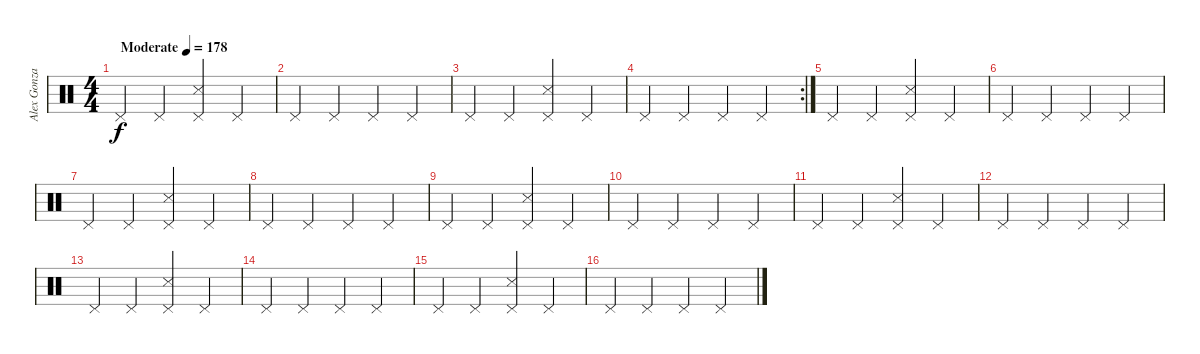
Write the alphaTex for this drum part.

\track ("Alex Gonzales" "Alex Gonza") {instrument percussion}
\staff {score}
\articulation defaults
\ts (4 4)
\tempo (178 "Moderate")
\clef neutral
\ks c "Pedal Hi-Hat (hit)".4{dy f} "Pedal Hi-Hat (hit)".4
("Pedal Hi-Hat (hit)" "Snare (side stick) 3").4 "Pedal Hi-Hat (hit)".4 |
"Pedal Hi-Hat (hit)".4 "Pedal Hi-Hat (hit)".4 "Pedal Hi-Hat (hit)".4 "Pedal Hi-Hat (hit)".4 |
"Pedal Hi-Hat (hit)".4 "Pedal Hi-Hat (hit)".4 ("Pedal Hi-Hat (hit)" "Snare (side stick) 3").4 "Pedal Hi-Hat (hit)".4 |
\rc 2 "Pedal Hi-Hat (hit)".4 "Pedal Hi-Hat (hit)".4 "Pedal Hi-Hat (hit)".4 "Pedal Hi-Hat (hit)".4
|
"Pedal Hi-Hat (hit)".4 "Pedal Hi-Hat (hit)".4 ("Pedal Hi-Hat (hit)" "Snare (side stick) 3").4 "Pedal Hi-Hat (hit)".4 |
"Pedal Hi-Hat (hit)".4 "Pedal Hi-Hat (hit)".4 "Pedal Hi-Hat (hit)".4 "Pedal Hi-Hat (hit)".4 |
"Pedal Hi-Hat (hit)".4 "Pedal Hi-Hat (hit)".4 ("Pedal Hi-Hat (hit)" "Snare (side stick) 3").4 "Pedal Hi-Hat (hit)".4 |
"Pedal Hi-Hat (hit)".4 "Pedal Hi-Hat (hit)".4 "Pedal Hi-Hat (hit)".4 "Pedal Hi-Hat (hit)".4 |
"Pedal Hi-Hat (hit)".4 "Pedal Hi-Hat (hit)".4 ("Pedal Hi-Hat (hit)" "Snare (side stick) 3").4 "Pedal Hi-Hat (hit)".4 |
"Pedal Hi-Hat (hit)".4 "Pedal Hi-Hat (hit)".4 "Pedal Hi-Hat (hit)".4 "Pedal Hi-Hat (hit)".4 |
"Pedal Hi-Hat (hit)".4 "Pedal Hi-Hat (hit)".4 ("Pedal Hi-Hat (hit)" "Snare (side stick) 3").4 "Pedal Hi-Hat (hit)".4 |
"Pedal Hi-Hat (hit)".4 "Pedal Hi-Hat (hit)".4 "Pedal Hi-Hat (hit)".4 "Pedal Hi-Hat (hit)".4 |
"Pedal Hi-Hat (hit)".4 "Pedal Hi-Hat (hit)".4 ("Pedal Hi-Hat (hit)" "Snare (side stick) 3").4 "Pedal Hi-Hat (hit)".4 |
"Pedal Hi-Hat (hit)".4 "Pedal Hi-Hat (hit)".4 "Pedal Hi-Hat (hit)".4 "Pedal Hi-Hat (hit)".4 |
"Pedal Hi-Hat (hit)".4 "Pedal Hi-Hat (hit)".4 ("Pedal Hi-Hat (hit)" "Snare (side stick) 3").4 "Pedal Hi-Hat (hit)".4 |
"Pedal Hi-Hat (hit)".4 "Pedal Hi-Hat (hit)".4 "Pedal Hi-Hat (hit)".4 "Pedal Hi-Hat (hit)".4
